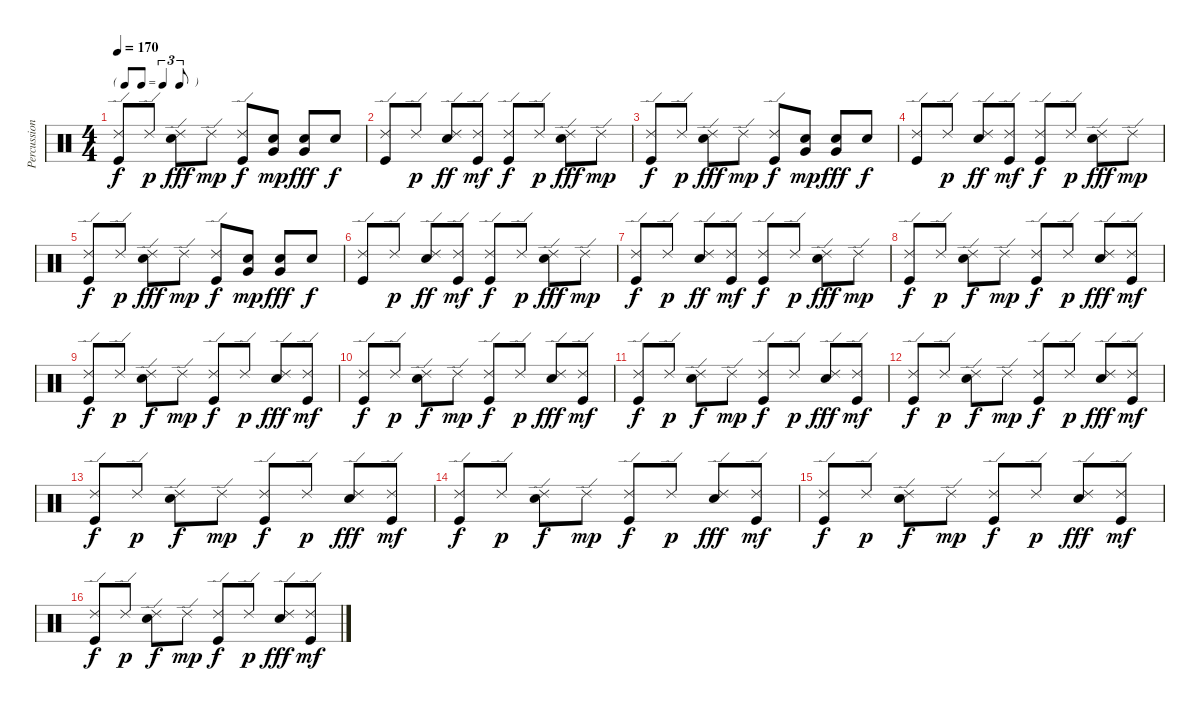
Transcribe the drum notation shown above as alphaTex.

\track ("Percussion" "Percussion") {instrument percussion}
\staff {score}
\articulation defaults
\ts (4 4)
\tf triplet8th
\tempo 170
\clef neutral
\ks c
("Ride (edge) 2" "Kick (hit)").8{dy f} "Ride (edge) 2".8{dy p} ("Ride (edge) 2" "Snare (hit) 2").8{dy fff} "Ride (edge) 2".8{dy mp} ("Ride (edge) 2" "Kick (hit)").8{dy f} ("Very Low Tom (hit)" "Snare (hit) 2").8{dy mp} ("Very Low Tom (hit)" "Snare (hit) 2").8{dy fff} "Snare (hit) 2".8{dy f} |
("Ride (edge) 2" "Kick (hit)").8 "Ride (edge) 2".8{dy p} ("Ride (edge) 2" "Snare (hit) 2").8{dy ff} ("Ride (edge) 2" "Kick (hit)").8{dy mf} ("Ride (edge) 2" "Kick (hit)").8{dy f} "Ride (edge) 2".8{dy p} ("Ride (edge) 2" "Snare (hit) 2").8{dy fff} "Ride (edge) 2".8{dy mp} |
("Ride (edge) 2" "Kick (hit)").8{dy f} "Ride (edge) 2".8{dy p} ("Ride (edge) 2" "Snare (hit) 2").8{dy fff} "Ride (edge) 2".8{dy mp} ("Ride (edge) 2" "Kick (hit)").8{dy f} ("Very Low Tom (hit)" "Snare (hit) 2").8{dy mp} ("Very Low Tom (hit)" "Snare (hit) 2").8{dy fff} "Snare (hit) 2".8{dy f} |
("Ride (edge) 2" "Kick (hit)").8 "Ride (edge) 2".8{dy p} ("Ride (edge) 2" "Snare (hit) 2").8{dy ff} ("Ride (edge) 2" "Kick (hit)").8{dy mf} ("Ride (edge) 2" "Kick (hit)").8{dy f} "Ride (edge) 2".8{dy p} ("Ride (edge) 2" "Snare (hit) 2").8{dy fff} "Ride (edge) 2".8{dy mp} |
("Ride (edge) 2" "Kick (hit)").8{dy f} "Ride (edge) 2".8{dy p} ("Ride (edge) 2" "Snare (hit) 2").8{dy fff} "Ride (edge) 2".8{dy mp} ("Ride (edge) 2" "Kick (hit)").8{dy f} ("Very Low Tom (hit)" "Snare (hit) 2").8{dy mp} ("Very Low Tom (hit)" "Snare (hit) 2").8{dy fff} "Snare (hit) 2".8{dy f} |
("Ride (edge) 2" "Kick (hit)").8 "Ride (edge) 2".8{dy p} ("Ride (edge) 2" "Snare (hit) 2").8{dy ff} ("Ride (edge) 2" "Kick (hit)").8{dy mf} ("Ride (edge) 2" "Kick (hit)").8{dy f} "Ride (edge) 2".8{dy p} ("Ride (edge) 2" "Snare (hit) 2").8{dy fff} "Ride (edge) 2".8{dy mp} |
("Ride (edge) 2" "Kick (hit)").8{dy f} "Ride (edge) 2".8{dy p} ("Ride (edge) 2" "Snare (hit) 2").8{dy ff} ("Ride (edge) 2" "Kick (hit)").8{dy mf} ("Ride (edge) 2" "Kick (hit)").8{dy f} "Ride (edge) 2".8{dy p} ("Ride (edge) 2" "Snare (hit) 2").8{dy fff} "Ride (edge) 2".8{dy mp} |
("Ride (edge) 2" "Kick (hit)").8{dy f} "Ride (edge) 2".8{dy p} ("Ride (edge) 2" "Snare (hit) 2").8{dy f} "Ride (edge) 2".8{dy mp} ("Ride (edge) 2" "Kick (hit)").8{dy f} "Ride (edge) 2".8{dy p} ("Ride (edge) 2" "Snare (hit) 2").8{dy fff} ("Ride (edge) 2" "Kick (hit)").8{dy mf} |
("Ride (edge) 2" "Kick (hit)").8{dy f} "Ride (edge) 2".8{dy p} ("Ride (edge) 2" "Snare (hit) 2").8{dy f} "Ride (edge) 2".8{dy mp} ("Ride (edge) 2" "Kick (hit)").8{dy f} "Ride (edge) 2".8{dy p} ("Ride (edge) 2" "Snare (hit) 2").8{dy fff} ("Ride (edge) 2" "Kick (hit)").8{dy mf} |
("Ride (edge) 2" "Kick (hit)").8{dy f} "Ride (edge) 2".8{dy p} ("Ride (edge) 2" "Snare (hit) 2").8{dy f} "Ride (edge) 2".8{dy mp} ("Ride (edge) 2" "Kick (hit)").8{dy f} "Ride (edge) 2".8{dy p} ("Ride (edge) 2" "Snare (hit) 2").8{dy fff} ("Ride (edge) 2" "Kick (hit)").8{dy mf} |
("Ride (edge) 2" "Kick (hit)").8{dy f} "Ride (edge) 2".8{dy p} ("Ride (edge) 2" "Snare (hit) 2").8{dy f} "Ride (edge) 2".8{dy mp} ("Ride (edge) 2" "Kick (hit)").8{dy f} "Ride (edge) 2".8{dy p} ("Ride (edge) 2" "Snare (hit) 2").8{dy fff} ("Ride (edge) 2" "Kick (hit)").8{dy mf} |
("Ride (edge) 2" "Kick (hit)").8{dy f} "Ride (edge) 2".8{dy p} ("Ride (edge) 2" "Snare (hit) 2").8{dy f} "Ride (edge) 2".8{dy mp} ("Ride (edge) 2" "Kick (hit)").8{dy f} "Ride (edge) 2".8{dy p} ("Ride (edge) 2" "Snare (hit) 2").8{dy fff} ("Ride (edge) 2" "Kick (hit)").8{dy mf} |
("Ride (edge) 2" "Kick (hit)").8{dy f} "Ride (edge) 2".8{dy p} ("Ride (edge) 2" "Snare (hit) 2").8{dy f} "Ride (edge) 2".8{dy mp} ("Ride (edge) 2" "Kick (hit)").8{dy f} "Ride (edge) 2".8{dy p} ("Ride (edge) 2" "Snare (hit) 2").8{dy fff} ("Ride (edge) 2" "Kick (hit)").8{dy mf} |
("Ride (edge) 2" "Kick (hit)").8{dy f} "Ride (edge) 2".8{dy p} ("Ride (edge) 2" "Snare (hit) 2").8{dy f} "Ride (edge) 2".8{dy mp} ("Ride (edge) 2" "Kick (hit)").8{dy f} "Ride (edge) 2".8{dy p} ("Ride (edge) 2" "Snare (hit) 2").8{dy fff} ("Ride (edge) 2" "Kick (hit)").8{dy mf} |
("Ride (edge) 2" "Kick (hit)").8{dy f} "Ride (edge) 2".8{dy p} ("Ride (edge) 2" "Snare (hit) 2").8{dy f} "Ride (edge) 2".8{dy mp} ("Ride (edge) 2" "Kick (hit)").8{dy f} "Ride (edge) 2".8{dy p} ("Ride (edge) 2" "Snare (hit) 2").8{dy fff} ("Ride (edge) 2" "Kick (hit)").8{dy mf} |
("Ride (edge) 2" "Kick (hit)").8{dy f} "Ride (edge) 2".8{dy p} ("Ride (edge) 2" "Snare (hit) 2").8{dy f} "Ride (edge) 2".8{dy mp} ("Ride (edge) 2" "Kick (hit)").8{dy f} "Ride (edge) 2".8{dy p} ("Ride (edge) 2" "Snare (hit) 2").8{dy fff} ("Ride (edge) 2" "Kick (hit)").8{dy mf}
